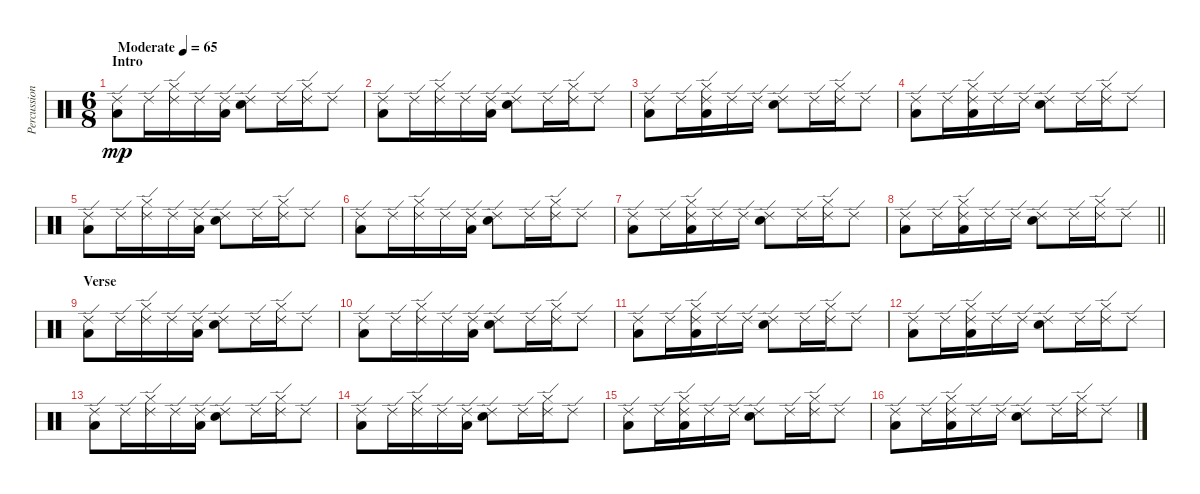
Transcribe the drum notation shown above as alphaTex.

\track ("Percussions" "Percussion") {instrument percussion}
\staff {score}
\articulation defaults
\ts (6 8)
\section ("" "Intro")
\tempo (65 "Moderate")
\clef neutral
\ks c
("Ride (edge) 2" "Low Tom (hit)").8{dy mp} "Ride (edge) 2".16 ("Ride (edge) 2" "Hi-Hat (closed)").16 "Ride (edge) 2".16 ("Ride (edge) 2" "Low Tom (hit)").16 ("Ride (edge) 2" "Electric Snare (hit)").8 "Ride (edge) 2".16 ("Ride (edge) 2" "Hi-Hat (closed)").16 "Ride (edge) 2".8 |
("Ride (edge) 2" "Low Tom (hit)").8 "Ride (edge) 2".16 ("Ride (edge) 2" "Hi-Hat (closed)").16 "Ride (edge) 2".16 ("Ride (edge) 2" "Low Tom (hit)").16 ("Ride (edge) 2" "Electric Snare (hit)").8 "Ride (edge) 2".16 ("Ride (edge) 2" "Hi-Hat (closed)").16 "Ride (edge) 2".8 |
("Ride (edge) 2" "Low Tom (hit)").8 "Ride (edge) 2".16 ("Ride (edge) 2" "Hi-Hat (closed)" "Low Tom (hit)").16 "Ride (edge) 2".16 "Ride (edge) 2".16 ("Ride (edge) 2" "Electric Snare (hit)").8 "Ride (edge) 2".16 ("Ride (edge) 2" "Hi-Hat (closed)").16 "Ride (edge) 2".8 |
("Ride (edge) 2" "Low Tom (hit)").8 "Ride (edge) 2".16 ("Ride (edge) 2" "Hi-Hat (closed)" "Low Tom (hit)").16 "Ride (edge) 2".16 "Ride (edge) 2".16 ("Ride (edge) 2" "Electric Snare (hit)").8 "Ride (edge) 2".16 ("Ride (edge) 2" "Hi-Hat (closed)").16 "Ride (edge) 2".8 |
("Ride (edge) 2" "Low Tom (hit)").8 "Ride (edge) 2".16 ("Ride (edge) 2" "Hi-Hat (closed)").16 "Ride (edge) 2".16 ("Ride (edge) 2" "Low Tom (hit)").16 ("Ride (edge) 2" "Electric Snare (hit)").8 "Ride (edge) 2".16 ("Ride (edge) 2" "Hi-Hat (closed)").16 "Ride (edge) 2".8 |
("Ride (edge) 2" "Low Tom (hit)").8 "Ride (edge) 2".16 ("Ride (edge) 2" "Hi-Hat (closed)").16 "Ride (edge) 2".16 ("Ride (edge) 2" "Low Tom (hit)").16 ("Ride (edge) 2" "Electric Snare (hit)").8 "Ride (edge) 2".16 ("Ride (edge) 2" "Hi-Hat (closed)").16 "Ride (edge) 2".8 |
("Ride (edge) 2" "Low Tom (hit)").8 "Ride (edge) 2".16 ("Ride (edge) 2" "Hi-Hat (closed)" "Low Tom (hit)").16 "Ride (edge) 2".16 "Ride (edge) 2".16 ("Ride (edge) 2" "Electric Snare (hit)").8 "Ride (edge) 2".16 ("Ride (edge) 2" "Hi-Hat (closed)").16 "Ride (edge) 2".8 |
\barLineRight lightlight
("Ride (edge) 2" "Low Tom (hit)").8 "Ride (edge) 2".16 ("Ride (edge) 2" "Hi-Hat (closed)" "Low Tom (hit)").16 "Ride (edge) 2".16 "Ride (edge) 2".16 ("Ride (edge) 2" "Electric Snare (hit)").8 "Ride (edge) 2".16 ("Ride (edge) 2" "Hi-Hat (closed)").16 "Ride (edge) 2".8 |
\section ("" "Verse")
("Ride (edge) 2" "Low Tom (hit)").8 "Ride (edge) 2".16 ("Ride (edge) 2" "Hi-Hat (closed)").16 "Ride (edge) 2".16 ("Ride (edge) 2" "Low Tom (hit)").16 ("Ride (edge) 2" "Electric Snare (hit)").8 "Ride (edge) 2".16 ("Ride (edge) 2" "Hi-Hat (closed)").16 "Ride (edge) 2".8 |
("Ride (edge) 2" "Low Tom (hit)").8 "Ride (edge) 2".16 ("Ride (edge) 2" "Hi-Hat (closed)").16 "Ride (edge) 2".16 ("Ride (edge) 2" "Low Tom (hit)").16 ("Ride (edge) 2" "Electric Snare (hit)").8 "Ride (edge) 2".16 ("Ride (edge) 2" "Hi-Hat (closed)").16 "Ride (edge) 2".8 |
("Ride (edge) 2" "Low Tom (hit)").8 "Ride (edge) 2".16 ("Ride (edge) 2" "Hi-Hat (closed)" "Low Tom (hit)").16 "Ride (edge) 2".16 "Ride (edge) 2".16 ("Ride (edge) 2" "Electric Snare (hit)").8 "Ride (edge) 2".16 ("Ride (edge) 2" "Hi-Hat (closed)").16 "Ride (edge) 2".8 |
("Ride (edge) 2" "Low Tom (hit)").8 "Ride (edge) 2".16 ("Ride (edge) 2" "Hi-Hat (closed)" "Low Tom (hit)").16 "Ride (edge) 2".16 "Ride (edge) 2".16 ("Ride (edge) 2" "Electric Snare (hit)").8 "Ride (edge) 2".16 ("Ride (edge) 2" "Hi-Hat (closed)").16 "Ride (edge) 2".8 |
("Ride (edge) 2" "Low Tom (hit)").8 "Ride (edge) 2".16 ("Ride (edge) 2" "Hi-Hat (closed)").16 "Ride (edge) 2".16 ("Ride (edge) 2" "Low Tom (hit)").16 ("Ride (edge) 2" "Electric Snare (hit)").8 "Ride (edge) 2".16 ("Ride (edge) 2" "Hi-Hat (closed)").16 "Ride (edge) 2".8 |
("Ride (edge) 2" "Low Tom (hit)").8 "Ride (edge) 2".16 ("Ride (edge) 2" "Hi-Hat (closed)").16 "Ride (edge) 2".16 ("Ride (edge) 2" "Low Tom (hit)").16 ("Ride (edge) 2" "Electric Snare (hit)").8 "Ride (edge) 2".16 ("Ride (edge) 2" "Hi-Hat (closed)").16 "Ride (edge) 2".8 |
("Ride (edge) 2" "Low Tom (hit)").8 "Ride (edge) 2".16 ("Ride (edge) 2" "Hi-Hat (closed)" "Low Tom (hit)").16 "Ride (edge) 2".16 "Ride (edge) 2".16 ("Ride (edge) 2" "Electric Snare (hit)").8 "Ride (edge) 2".16 ("Ride (edge) 2" "Hi-Hat (closed)").16 "Ride (edge) 2".8 |
("Ride (edge) 2" "Low Tom (hit)").8 "Ride (edge) 2".16 ("Ride (edge) 2" "Hi-Hat (closed)" "Low Tom (hit)").16 "Ride (edge) 2".16 "Ride (edge) 2".16 ("Ride (edge) 2" "Electric Snare (hit)").8 "Ride (edge) 2".16 ("Ride (edge) 2" "Hi-Hat (closed)").16 "Ride (edge) 2".8
